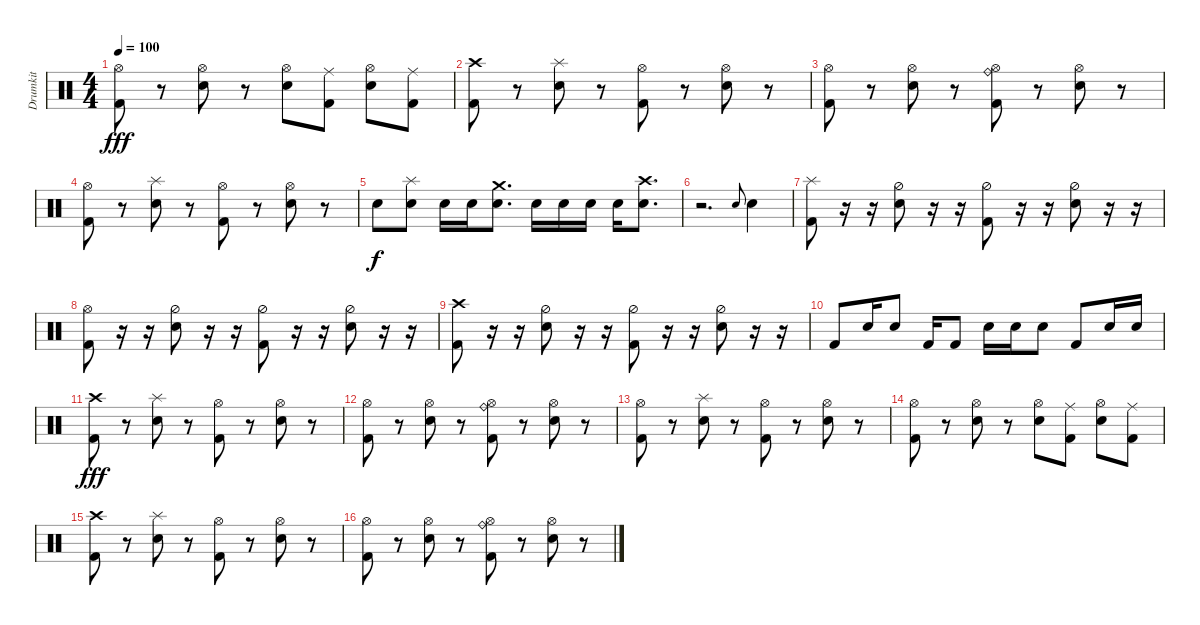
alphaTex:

\track ("Drumkit" "Drumkit") {instrument percussion}
\staff {score}
\articulation defaults
\ts (4 4)
\tempo 100
\clef neutral
\ks c
("Kick (hit) 2" "Hi-Hat (open)").8{dy fff} r.8 ("Snare (hit) 2" "Hi-Hat (open)").8 r.8 ("Snare (hit) 2" "Hi-Hat (open)").8 ("Kick (hit) 2" "Ride (middle)").8 ("Snare (hit) 2" "Hi-Hat (open)").8 ("Kick (hit) 2" "Ride (middle)").8 |
("Kick (hit) 2" "Crash high (hit)").8 r.8 ("Snare (hit) 2" "Splash (hit)").8 r.8 ("Kick (hit) 2" "Hi-Hat (open)").8 r.8 ("Snare (hit) 2" "Hi-Hat (open)").8 r.8 |
("Kick (hit) 2" "Hi-Hat (open)").8 r.8 ("Snare (hit) 2" "Hi-Hat (open)").8 r.8 ("Kick (hit) 2" "Hi-Hat (open)" "Ride (bell)").8 r.8 ("Hi-Hat (open)" "Snare (hit) 2").8 r.8 |
("Kick (hit) 2" "Hi-Hat (open)").8 r.8 ("Snare (hit) 2" "Splash (hit)").8 r.8 ("Kick (hit) 2" "Hi-Hat (open)").8 r.8 ("Snare (hit) 2" "Hi-Hat (open)").8 r.8 |
"Snare (hit) 2".8{dy f} ("Snare (hit) 2" "Splash (hit)").8 "Snare (hit) 2".16 "Snare (hit) 2".16 ("Snare (hit) 2" "Crash medium (hit)").8{d} "Snare (hit) 2".16 "Snare (hit) 2".16 "Snare (hit) 2".16 "Snare (hit) 2".16 ("Snare (hit) 2" "Crash high (hit)").8{d} |
r.2{d} "Snare (hit)".8{gr onbeat} "Snare (hit) 2".4 |
("Kick (hit) 2" "Splash (hit)").8 r.16 r.16 ("Hi-Hat (half)" "Snare (hit) 2").8 r.16 r.16 ("Kick (hit) 2" "Hi-Hat (half)").8 r.16 r.16 ("Snare (hit) 2" "Hi-Hat (half)").8 r.16 r.16 |
("Kick (hit) 2" "Hi-Hat (open)").8 r.16 r.16 ("Hi-Hat (half)" "Snare (hit) 2").8 r.16 r.16 ("Kick (hit) 2" "Hi-Hat (half)").8 r.16 r.16 ("Snare (hit) 2" "Hi-Hat (half)").8 r.16 r.16 |
("Kick (hit) 2" "Crash high (hit)").8 r.16 r.16 ("Hi-Hat (half)" "Snare (hit) 2").8 r.16 r.16 ("Kick (hit) 2" "Hi-Hat (half)").8 r.16 r.16 ("Snare (hit) 2" "Hi-Hat (half)").8 r.16 r.16 |
"Kick (hit) 2".8 "Snare (hit) 2".16 "Snare (hit) 2".8 "Kick (hit) 2".16 "Kick (hit) 2".8 "Snare (hit) 2".16 "Snare (hit) 2".16 "Snare (hit) 2".8 "Kick (hit) 2".8 "Snare (hit) 2".16 "Snare (hit) 2".16 |
("Kick (hit) 2" "Crash high (hit)").8{dy fff} r.8 ("Snare (hit) 2" "Splash (hit)").8 r.8 ("Kick (hit) 2" "Hi-Hat (open)").8 r.8 ("Snare (hit) 2" "Hi-Hat (open)").8 r.8 |
("Kick (hit) 2" "Hi-Hat (open)").8 r.8 ("Snare (hit) 2" "Hi-Hat (open)").8 r.8 ("Kick (hit) 2" "Hi-Hat (open)" "Ride (bell)").8 r.8 ("Hi-Hat (open)" "Snare (hit) 2").8 r.8 |
("Kick (hit) 2" "Hi-Hat (open)").8 r.8 ("Snare (hit) 2" "Splash (hit)").8 r.8 ("Kick (hit) 2" "Hi-Hat (open)").8 r.8 ("Snare (hit) 2" "Hi-Hat (open)").8 r.8 |
("Kick (hit) 2" "Hi-Hat (open)").8 r.8 ("Snare (hit) 2" "Hi-Hat (open)").8 r.8 ("Snare (hit) 2" "Hi-Hat (open)").8 ("Kick (hit) 2" "Ride (middle)").8 ("Snare (hit) 2" "Hi-Hat (open)").8 ("Kick (hit) 2" "Ride (middle)").8 |
("Kick (hit) 2" "Crash high (hit)").8 r.8 ("Snare (hit) 2" "Splash (hit)").8 r.8 ("Kick (hit) 2" "Hi-Hat (open)").8 r.8 ("Snare (hit) 2" "Hi-Hat (open)").8 r.8 |
("Kick (hit) 2" "Hi-Hat (open)").8 r.8 ("Snare (hit) 2" "Hi-Hat (open)").8 r.8 ("Kick (hit) 2" "Hi-Hat (open)" "Ride (bell)").8 r.8 ("Hi-Hat (open)" "Snare (hit) 2").8 r.8
